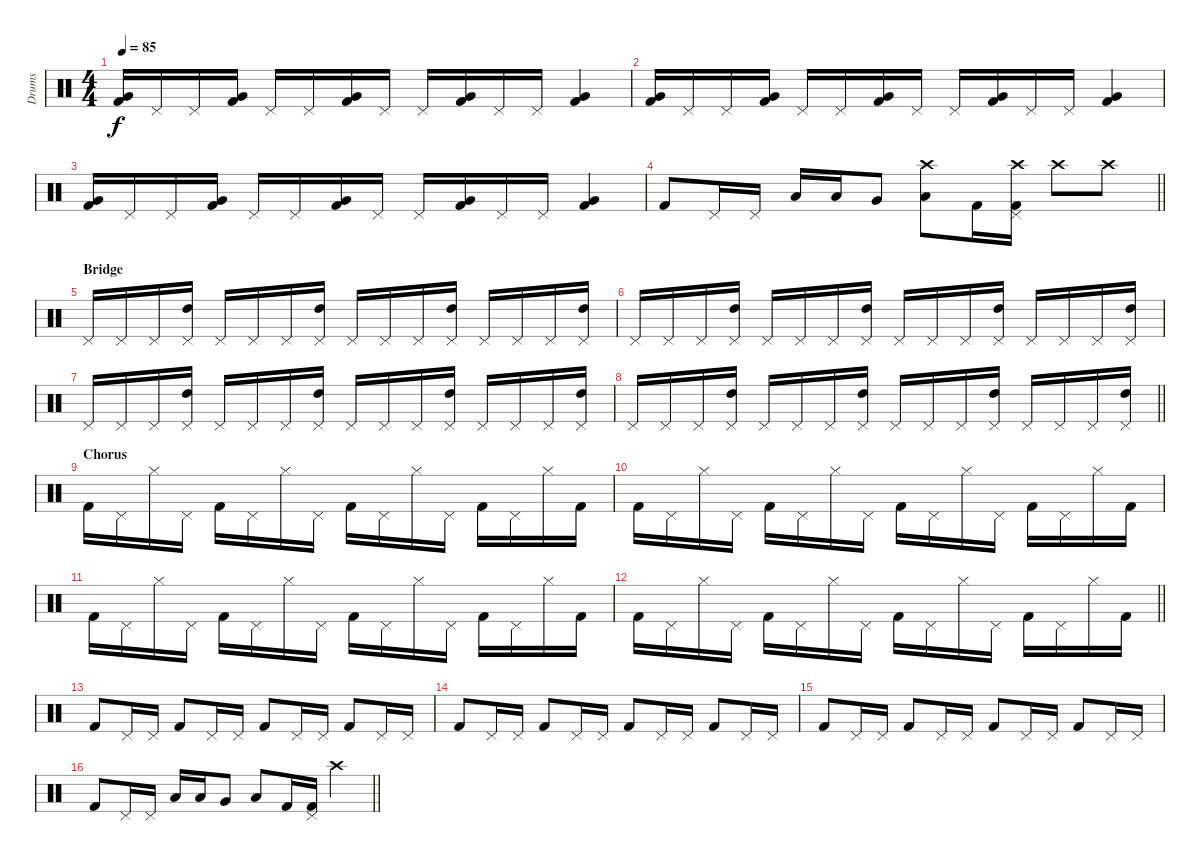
\track ("Drums" "Drums") {instrument percussion}
\staff {score}
\articulation defaults
\ts (4 4)
\tempo 85
\clef neutral
\ks c
("Very Low Tom (hit)" "Kick (hit) 2").16{dy f} "Pedal Hi-Hat (hit)".16 "Pedal Hi-Hat (hit)".16 ("Very Low Tom (hit)" "Kick (hit) 2").16 "Pedal Hi-Hat (hit)".16 "Pedal Hi-Hat (hit)".16 ("Very Low Tom (hit)" "Kick (hit) 2").16 "Pedal Hi-Hat (hit)".16 "Pedal Hi-Hat (hit)".16 ("Very Low Tom (hit)" "Kick (hit) 2").16 "Pedal Hi-Hat (hit)".16 "Pedal Hi-Hat (hit)".16 ("Very Low Tom (hit)" "Kick (hit) 2").4 |
("Very Low Tom (hit)" "Kick (hit) 2").16 "Pedal Hi-Hat (hit)".16 "Pedal Hi-Hat (hit)".16 ("Very Low Tom (hit)" "Kick (hit) 2").16 "Pedal Hi-Hat (hit)".16 "Pedal Hi-Hat (hit)".16 ("Very Low Tom (hit)" "Kick (hit) 2").16 "Pedal Hi-Hat (hit)".16 "Pedal Hi-Hat (hit)".16 ("Very Low Tom (hit)" "Kick (hit) 2").16 "Pedal Hi-Hat (hit)".16 "Pedal Hi-Hat (hit)".16 ("Very Low Tom (hit)" "Kick (hit) 2").4 |
("Very Low Tom (hit)" "Kick (hit) 2").16 "Pedal Hi-Hat (hit)".16 "Pedal Hi-Hat (hit)".16 ("Very Low Tom (hit)" "Kick (hit) 2").16 "Pedal Hi-Hat (hit)".16 "Pedal Hi-Hat (hit)".16 ("Very Low Tom (hit)" "Kick (hit) 2").16 "Pedal Hi-Hat (hit)".16 "Pedal Hi-Hat (hit)".16 ("Very Low Tom (hit)" "Kick (hit) 2").16 "Pedal Hi-Hat (hit)".16 "Pedal Hi-Hat (hit)".16 ("Very Low Tom (hit)" "Kick (hit) 2").4 |
\barLineRight lightlight "Kick (hit) 2".8 "Pedal Hi-Hat (hit)".16 "Pedal Hi-Hat (hit)".16 "Low Tom (hit)".16 "Low Tom (hit)".16 "Very Low Tom (hit)".8
("Crash high (hit)" "Low Floor Tom (hit)").8 "Kick (hit) 2".16 ("Crash high (hit)" "Pedal Hi-Hat (hit)" "Kick (hit) 2").16 "Crash high (hit)".8 "Crash high (hit)".8 |
\section ("" "Bridge")
"Pedal Hi-Hat (hit)".16 "Pedal Hi-Hat (hit)".16 "Pedal Hi-Hat (hit)".16 ("High Tom (hit)" "Pedal Hi-Hat (hit)").16 "Pedal Hi-Hat (hit)".16 "Pedal Hi-Hat (hit)".16 "Pedal Hi-Hat (hit)".16 ("High Tom (hit)" "Pedal Hi-Hat (hit)").16 "Pedal Hi-Hat (hit)".16 "Pedal Hi-Hat (hit)".16 "Pedal Hi-Hat (hit)".16 ("High Tom (hit)" "Pedal Hi-Hat (hit)").16 "Pedal Hi-Hat (hit)".16 "Pedal Hi-Hat (hit)".16 "Pedal Hi-Hat (hit)".16 ("High Tom (hit)" "Pedal Hi-Hat (hit)").16 |
"Pedal Hi-Hat (hit)".16 "Pedal Hi-Hat (hit)".16 "Pedal Hi-Hat (hit)".16 ("High Tom (hit)" "Pedal Hi-Hat (hit)").16 "Pedal Hi-Hat (hit)".16 "Pedal Hi-Hat (hit)".16 "Pedal Hi-Hat (hit)".16 ("High Tom (hit)" "Pedal Hi-Hat (hit)").16 "Pedal Hi-Hat (hit)".16 "Pedal Hi-Hat (hit)".16 "Pedal Hi-Hat (hit)".16 ("High Tom (hit)" "Pedal Hi-Hat (hit)").16 "Pedal Hi-Hat (hit)".16 "Pedal Hi-Hat (hit)".16 "Pedal Hi-Hat (hit)".16 ("High Tom (hit)" "Pedal Hi-Hat (hit)").16 |
"Pedal Hi-Hat (hit)".16 "Pedal Hi-Hat (hit)".16 "Pedal Hi-Hat (hit)".16 ("High Tom (hit)" "Pedal Hi-Hat (hit)").16 "Pedal Hi-Hat (hit)".16 "Pedal Hi-Hat (hit)".16 "Pedal Hi-Hat (hit)".16 ("High Tom (hit)" "Pedal Hi-Hat (hit)").16 "Pedal Hi-Hat (hit)".16 "Pedal Hi-Hat (hit)".16 "Pedal Hi-Hat (hit)".16 ("High Tom (hit)" "Pedal Hi-Hat (hit)").16 "Pedal Hi-Hat (hit)".16 "Pedal Hi-Hat (hit)".16 "Pedal Hi-Hat (hit)".16 ("High Tom (hit)" "Pedal Hi-Hat (hit)").16 |
\barLineRight lightlight "Pedal Hi-Hat (hit)".16 "Pedal Hi-Hat (hit)".16 "Pedal Hi-Hat (hit)".16
("High Tom (hit)" "Pedal Hi-Hat (hit)").16 "Pedal Hi-Hat (hit)".16 "Pedal Hi-Hat (hit)".16 "Pedal Hi-Hat (hit)".16 ("High Tom (hit)" "Pedal Hi-Hat (hit)").16 "Pedal Hi-Hat (hit)".16 "Pedal Hi-Hat (hit)".16 "Pedal Hi-Hat (hit)".16 ("High Tom (hit)" "Pedal Hi-Hat (hit)").16 "Pedal Hi-Hat (hit)".16 "Pedal Hi-Hat (hit)".16 "Pedal Hi-Hat (hit)".16 ("High Tom (hit)" "Pedal Hi-Hat (hit)").16 |
\section ("" "Chorus")
"Kick (hit) 2".16 "Pedal Hi-Hat (hit)".16 "Hi-Hat (closed)".16 "Pedal Hi-Hat (hit)".16 "Kick (hit) 2".16 "Pedal Hi-Hat (hit)".16 "Hi-Hat (closed)".16 "Pedal Hi-Hat (hit)".16 "Kick (hit) 2".16 "Pedal Hi-Hat (hit)".16 "Hi-Hat (closed)".16 "Pedal Hi-Hat (hit)".16 "Kick (hit) 2".16 "Pedal Hi-Hat (hit)".16 "Hi-Hat (closed)".16 "Kick (hit) 2".16 |
"Kick (hit) 2".16 "Pedal Hi-Hat (hit)".16 "Hi-Hat (closed)".16 "Pedal Hi-Hat (hit)".16 "Kick (hit) 2".16 "Pedal Hi-Hat (hit)".16 "Hi-Hat (closed)".16 "Pedal Hi-Hat (hit)".16 "Kick (hit) 2".16 "Pedal Hi-Hat (hit)".16 "Hi-Hat (closed)".16 "Pedal Hi-Hat (hit)".16 "Kick (hit) 2".16 "Pedal Hi-Hat (hit)".16 "Hi-Hat (closed)".16 "Kick (hit) 2".16 |
"Kick (hit) 2".16 "Pedal Hi-Hat (hit)".16 "Hi-Hat (closed)".16 "Pedal Hi-Hat (hit)".16 "Kick (hit) 2".16 "Pedal Hi-Hat (hit)".16 "Hi-Hat (closed)".16 "Pedal Hi-Hat (hit)".16 "Kick (hit) 2".16 "Pedal Hi-Hat (hit)".16 "Hi-Hat (closed)".16 "Pedal Hi-Hat (hit)".16 "Kick (hit) 2".16 "Pedal Hi-Hat (hit)".16 "Hi-Hat (closed)".16 "Kick (hit) 2".16 |
\barLineRight lightlight "Kick (hit) 2".16 "Pedal Hi-Hat (hit)".16 "Hi-Hat (closed)".16 "Pedal Hi-Hat (hit)".16 "Kick (hit) 2".16 "Pedal Hi-Hat (hit)".16 "Hi-Hat (closed)".16 "Pedal Hi-Hat (hit)".16 "Kick (hit) 2".16 "Pedal Hi-Hat (hit)".16 "Hi-Hat (closed)".16 "Pedal Hi-Hat (hit)".16 "Kick (hit) 2".16 "Pedal Hi-Hat (hit)".16 "Hi-Hat (closed)".16 "Kick (hit) 2".16
|
"Kick (hit) 2".8 "Pedal Hi-Hat (hit)".16 "Pedal Hi-Hat (hit)".16 "Kick (hit) 2".8 "Pedal Hi-Hat (hit)".16 "Pedal Hi-Hat (hit)".16 "Kick (hit) 2".8 "Pedal Hi-Hat (hit)".16 "Pedal Hi-Hat (hit)".16 "Kick (hit) 2".8 "Pedal Hi-Hat (hit)".16 "Pedal Hi-Hat (hit)".16 |
"Kick (hit) 2".8 "Pedal Hi-Hat (hit)".16 "Pedal Hi-Hat (hit)".16 "Kick (hit) 2".8 "Pedal Hi-Hat (hit)".16 "Pedal Hi-Hat (hit)".16 "Kick (hit) 2".8 "Pedal Hi-Hat (hit)".16 "Pedal Hi-Hat (hit)".16 "Kick (hit) 2".8 "Pedal Hi-Hat (hit)".16 "Pedal Hi-Hat (hit)".16 |
"Kick (hit) 2".8 "Pedal Hi-Hat (hit)".16 "Pedal Hi-Hat (hit)".16 "Kick (hit) 2".8 "Pedal Hi-Hat (hit)".16 "Pedal Hi-Hat (hit)".16 "Kick (hit) 2".8 "Pedal Hi-Hat (hit)".16 "Pedal Hi-Hat (hit)".16 "Kick (hit) 2".8 "Pedal Hi-Hat (hit)".16 "Pedal Hi-Hat (hit)".16 |
\barLineRight lightlight "Kick (hit) 2".8 "Pedal Hi-Hat (hit)".16 "Pedal Hi-Hat (hit)".16 "Low Tom (hit)".16 "Low Tom (hit)".16 "Very Low Tom (hit)".8 "Low Floor Tom (hit)".8 "Kick (hit) 2".16
("Pedal Hi-Hat (hit)" "Kick (hit) 2").16 "Crash high (hit)".4
